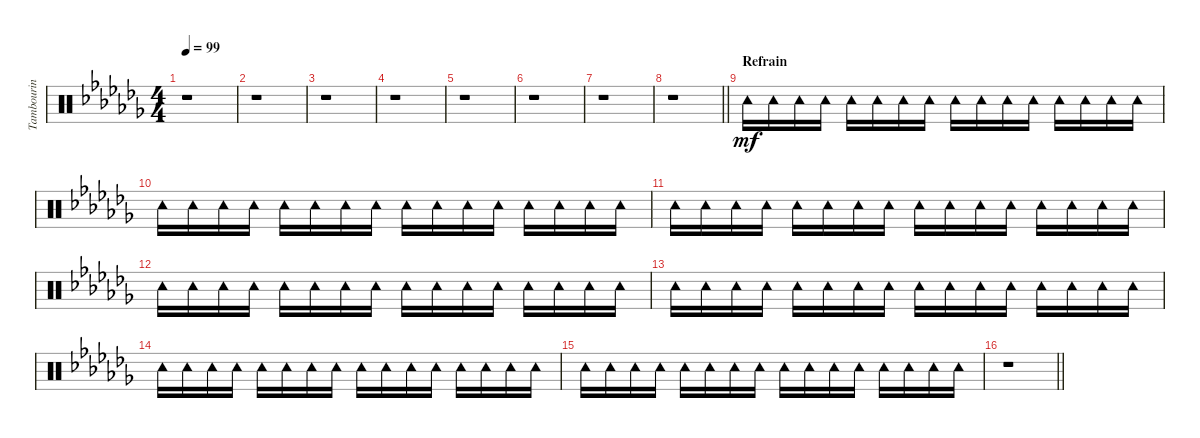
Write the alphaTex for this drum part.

\track ("Tambourin" "Tambourin") {instrument percussion}
\staff {score}
\articulation defaults
\ts (4 4)
\tempo 99
\clef neutral
\ks cb
r.1{dy mf} |
r.1 |
r.1 |
r.1 |
r.1 |
r.1 |
r.1 |
\barLineRight lightlight
r.1 |
\section ("" "Refrain")
"Tambourine (hit)".16 "Tambourine (hit)".16 "Tambourine (hit)".16 "Tambourine (hit)".16 "Tambourine (hit)".16 "Tambourine (hit)".16 "Tambourine (hit)".16 "Tambourine (hit)".16 "Tambourine (hit)".16 "Tambourine (hit)".16 "Tambourine (hit)".16 "Tambourine (hit)".16 "Tambourine (hit)".16 "Tambourine (hit)".16 "Tambourine (hit)".16 "Tambourine (hit)".16 |
"Tambourine (hit)".16 "Tambourine (hit)".16 "Tambourine (hit)".16 "Tambourine (hit)".16 "Tambourine (hit)".16 "Tambourine (hit)".16 "Tambourine (hit)".16 "Tambourine (hit)".16 "Tambourine (hit)".16 "Tambourine (hit)".16 "Tambourine (hit)".16 "Tambourine (hit)".16 "Tambourine (hit)".16 "Tambourine (hit)".16 "Tambourine (hit)".16 "Tambourine (hit)".16 |
"Tambourine (hit)".16 "Tambourine (hit)".16 "Tambourine (hit)".16 "Tambourine (hit)".16 "Tambourine (hit)".16 "Tambourine (hit)".16 "Tambourine (hit)".16 "Tambourine (hit)".16 "Tambourine (hit)".16 "Tambourine (hit)".16 "Tambourine (hit)".16 "Tambourine (hit)".16 "Tambourine (hit)".16 "Tambourine (hit)".16 "Tambourine (hit)".16 "Tambourine (hit)".16 |
"Tambourine (hit)".16 "Tambourine (hit)".16 "Tambourine (hit)".16 "Tambourine (hit)".16 "Tambourine (hit)".16 "Tambourine (hit)".16 "Tambourine (hit)".16 "Tambourine (hit)".16 "Tambourine (hit)".16 "Tambourine (hit)".16 "Tambourine (hit)".16 "Tambourine (hit)".16 "Tambourine (hit)".16 "Tambourine (hit)".16 "Tambourine (hit)".16 "Tambourine (hit)".16 |
"Tambourine (hit)".16 "Tambourine (hit)".16 "Tambourine (hit)".16 "Tambourine (hit)".16 "Tambourine (hit)".16 "Tambourine (hit)".16 "Tambourine (hit)".16 "Tambourine (hit)".16 "Tambourine (hit)".16 "Tambourine (hit)".16 "Tambourine (hit)".16 "Tambourine (hit)".16 "Tambourine (hit)".16 "Tambourine (hit)".16 "Tambourine (hit)".16 "Tambourine (hit)".16 |
"Tambourine (hit)".16 "Tambourine (hit)".16 "Tambourine (hit)".16 "Tambourine (hit)".16 "Tambourine (hit)".16 "Tambourine (hit)".16 "Tambourine (hit)".16 "Tambourine (hit)".16 "Tambourine (hit)".16 "Tambourine (hit)".16 "Tambourine (hit)".16 "Tambourine (hit)".16 "Tambourine (hit)".16 "Tambourine (hit)".16 "Tambourine (hit)".16 "Tambourine (hit)".16 |
"Tambourine (hit)".16 "Tambourine (hit)".16 "Tambourine (hit)".16 "Tambourine (hit)".16 "Tambourine (hit)".16 "Tambourine (hit)".16 "Tambourine (hit)".16 "Tambourine (hit)".16 "Tambourine (hit)".16 "Tambourine (hit)".16 "Tambourine (hit)".16 "Tambourine (hit)".16 "Tambourine (hit)".16 "Tambourine (hit)".16 "Tambourine (hit)".16 "Tambourine (hit)".16 |
\barLineRight lightlight
r.1
